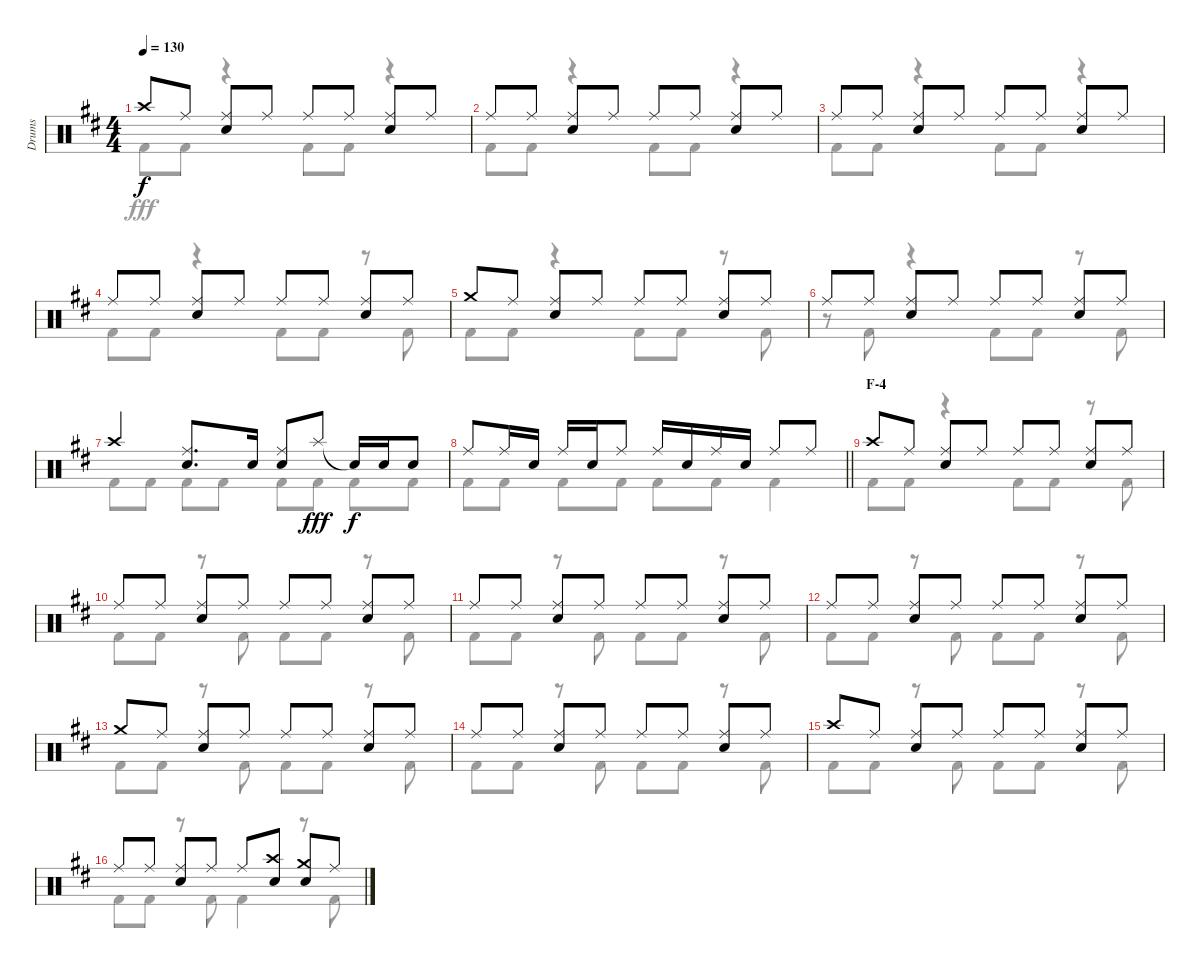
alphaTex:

\track ("Drums" "Drums") {instrument percussion}
\staff {score}
\articulation defaults
\voice
\ts (4 4)
\tempo 130
\clef neutral
\ks d "Crash high (hit)".8{dy f} "Ride (middle)".8
("Ride (middle)" "Snare (hit) 2").8 "Ride (middle)".8 "Ride (middle)".8 "Ride (middle)".8 ("Ride (middle)" "Snare (hit) 2").8 "Ride (middle)".8 |
"Ride (middle)".8 "Ride (middle)".8 ("Ride (middle)" "Snare (hit) 2").8 "Ride (middle)".8 "Ride (middle)".8 "Ride (middle)".8 ("Ride (middle)" "Snare (hit) 2").8 "Ride (middle)".8 |
"Ride (middle)".8 "Ride (middle)".8 ("Ride (middle)" "Snare (hit) 2").8 "Ride (middle)".8 "Ride (middle)".8 "Ride (middle)".8 ("Ride (middle)" "Snare (hit) 2").8 "Ride (middle)".8 |
"Ride (middle)".8 "Ride (middle)".8 ("Ride (middle)" "Snare (hit) 2").8 "Ride (middle)".8 "Ride (middle)".8 "Ride (middle)".8 ("Ride (middle)" "Snare (hit) 2").8 "Ride (middle)".8 |
"Crash medium (hit)".8 "Ride (middle)".8 ("Ride (middle)" "Snare (hit) 2").8 "Ride (middle)".8 "Ride (middle)".8 "Ride (middle)".8 ("Ride (middle)" "Snare (hit) 2").8 "Ride (middle)".8 |
"Ride (middle)".8 "Ride (middle)".8 ("Ride (middle)" "Snare (hit) 2").8 "Ride (middle)".8 "Ride (middle)".8 "Ride (middle)".8 ("Ride (middle)" "Snare (hit) 2").8 "Ride (middle)".8 |
"Crash high (hit)".4 ("Ride (middle)" "Snare (hit) 2").8{d} "Snare (hit) 2".16 ("Ride (middle)" "Snare (hit) 2").8 "Splash (hit)".8{dy fff} "Snare (hit)"{t}.16{dy f} "Snare (hit) 2".16 "Snare (hit) 2".8 |
\barLineRight lightlight "Ride (middle)".8 "Ride (middle)".16 "Snare (hit) 2".16 "Ride (middle)".16 "Snare (hit) 2".16 "Ride (middle)".8 "Ride (middle)".16 "Snare (hit) 2".16 "Ride (middle)".16 "Snare (hit) 2".16 "Ride (middle)".8 "Ride (middle)".8
|
\section ("" "F-4")
"Crash high (hit)".8 "Ride (middle)".8 ("Ride (middle)" "Snare (hit) 2").8 "Ride (middle)".8 "Ride (middle)".8 "Ride (middle)".8 ("Ride (middle)" "Snare (hit) 2").8 "Ride (middle)".8 |
"Ride (middle)".8 "Ride (middle)".8 ("Ride (middle)" "Snare (hit) 2").8 "Ride (middle)".8 "Ride (middle)".8 "Ride (middle)".8 ("Ride (middle)" "Snare (hit) 2").8 "Ride (middle)".8 |
"Ride (middle)".8 "Ride (middle)".8 ("Ride (middle)" "Snare (hit) 2").8 "Ride (middle)".8 "Ride (middle)".8 "Ride (middle)".8 ("Ride (middle)" "Snare (hit) 2").8 "Ride (middle)".8 |
"Ride (middle)".8 "Ride (middle)".8 ("Ride (middle)" "Snare (hit) 2").8 "Ride (middle)".8 "Ride (middle)".8 "Ride (middle)".8 ("Ride (middle)" "Snare (hit) 2").8 "Ride (middle)".8 |
"Crash medium (hit)".8 "Ride (middle)".8 ("Ride (middle)" "Snare (hit) 2").8 "Ride (middle)".8 "Ride (middle)".8 "Ride (middle)".8 ("Ride (middle)" "Snare (hit) 2").8 "Ride (middle)".8 |
"Ride (middle)".8 "Ride (middle)".8 ("Ride (middle)" "Snare (hit) 2").8 "Ride (middle)".8 "Ride (middle)".8 "Ride (middle)".8 ("Ride (middle)" "Snare (hit) 2").8 "Ride (middle)".8 |
"Crash high (hit)".8 "Ride (middle)".8 ("Ride (middle)" "Snare (hit) 2").8 "Ride (middle)".8 "Ride (middle)".8 "Ride (middle)".8 ("Ride (middle)" "Snare (hit) 2").8 "Ride (middle)".8 |
"Ride (middle)".8 "Ride (middle)".8 ("Ride (middle)" "Snare (hit) 2").8 "Ride (middle)".8 "Ride (middle)".8 ("Crash high (hit)" "Snare (hit) 2").8 ("Crash medium (hit)" "Snare (hit) 2").8 "Ride (middle)".8
\voice
\clef neutral
\ottava regular
\simile none
\ks d "Kick (hit) 2".8{dy fff} "Kick (hit) 2".8
r.4 "Kick (hit) 2".8 "Kick (hit) 2".8 r.4 |
"Kick (hit) 2".8 "Kick (hit) 2".8 r.4 "Kick (hit) 2".8 "Kick (hit) 2".8 r.4 |
"Kick (hit) 2".8 "Kick (hit) 2".8 r.4 "Kick (hit) 2".8 "Kick (hit) 2".8 r.4 |
"Kick (hit) 2".8 "Kick (hit) 2".8 r.4 "Kick (hit) 2".8 "Kick (hit) 2".8 r.8 "Kick (hit) 2".8 |
"Kick (hit) 2".8 "Kick (hit) 2".8 r.4 "Kick (hit) 2".8 "Kick (hit) 2".8 r.8 "Kick (hit) 2".8 |
r.8 "Kick (hit) 2".8 r.4 "Kick (hit) 2".8 "Kick (hit) 2".8 r.8 "Kick (hit) 2".8 |
"Kick (hit) 2".8 "Kick (hit) 2".8 "Kick (hit) 2".8 "Kick (hit) 2".8 "Kick (hit) 2".8 "Kick (hit) 2".8 "Kick (hit) 2".8 "Kick (hit) 2".8 |
\barLineRight lightlight "Kick (hit) 2".8 "Kick (hit) 2".8 "Kick (hit) 2".8 "Kick (hit) 2".8 "Kick (hit) 2".8 "Kick (hit) 2".8 "Kick (hit) 2".4
|
"Kick (hit) 2".8 "Kick (hit) 2".8 r.4 "Kick (hit) 2".8 "Kick (hit) 2".8 r.8 "Kick (hit) 2".8 |
"Kick (hit) 2".8 "Kick (hit) 2".8 r.8 "Kick (hit) 2".8 "Kick (hit) 2".8 "Kick (hit) 2".8 r.8 "Kick (hit) 2".8 |
"Kick (hit) 2".8 "Kick (hit) 2".8 r.8 "Kick (hit) 2".8 "Kick (hit) 2".8 "Kick (hit) 2".8 r.8 "Kick (hit) 2".8 |
"Kick (hit) 2".8 "Kick (hit) 2".8 r.8 "Kick (hit) 2".8 "Kick (hit) 2".8 "Kick (hit) 2".8 r.8 "Kick (hit) 2".8 |
"Kick (hit) 2".8 "Kick (hit) 2".8 r.8 "Kick (hit) 2".8 "Kick (hit) 2".8 "Kick (hit) 2".8 r.8 "Kick (hit) 2".8 |
"Kick (hit) 2".8 "Kick (hit) 2".8 r.8 "Kick (hit) 2".8 "Kick (hit) 2".8 "Kick (hit) 2".8 r.8 "Kick (hit) 2".8 |
"Kick (hit) 2".8 "Kick (hit) 2".8 r.8 "Kick (hit) 2".8 "Kick (hit) 2".8 "Kick (hit) 2".8 r.8 "Kick (hit) 2".8 |
"Kick (hit) 2".8 "Kick (hit) 2".8 r.8 "Kick (hit) 2".8 "Kick (hit) 2".4 r.8 "Kick (hit) 2".8
